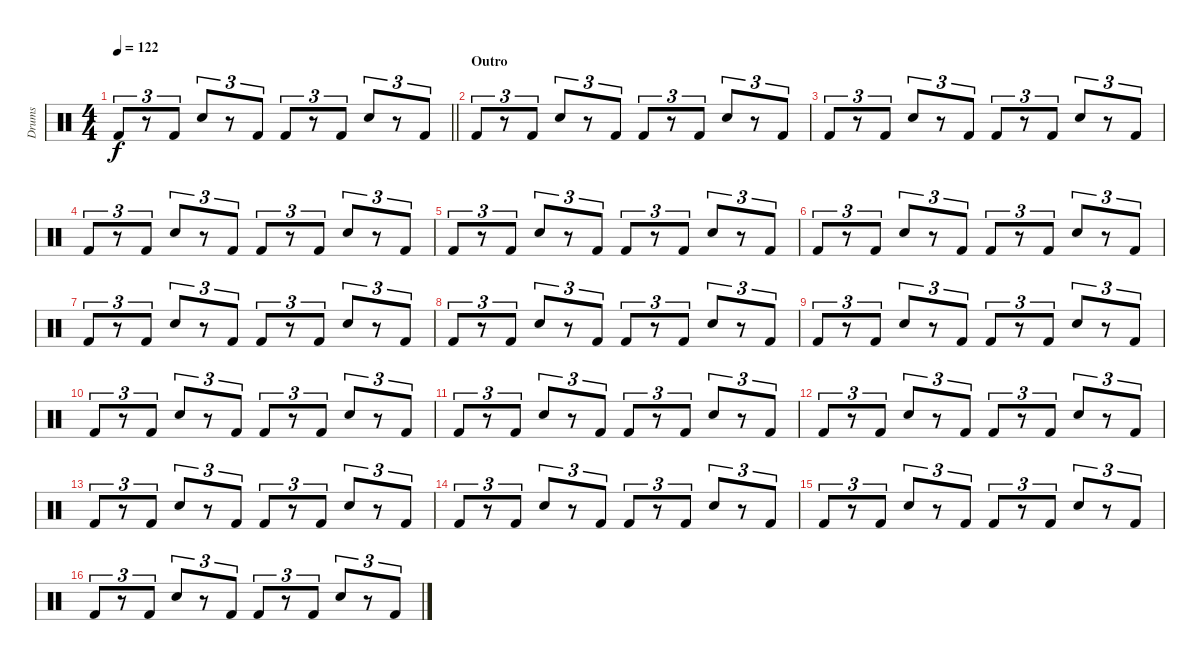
\track ("Drums" "Drums") {instrument percussion}
\staff {score}
\articulation defaults
\ts (4 4)
\tempo 122
\clef neutral
\barLineRight lightlight
\ks c "Kick (hit) 2".8{tu (3 2) dy f}
r.8{tu (3 2)} "Kick (hit) 2".8{tu (3 2)} "Snare (hit) 2".8{tu (3 2)} r.8{tu (3 2)} "Kick (hit) 2".8{tu (3 2)} "Kick (hit) 2".8{tu (3 2)} r.8{tu (3 2)} "Kick (hit) 2".8{tu (3 2)} "Snare (hit) 2".8{tu (3 2)} r.8{tu (3 2)} "Kick (hit) 2".8{tu (3 2)} |
\section ("" "Outro")
"Kick (hit) 2".8{tu (3 2)} r.8{tu (3 2)} "Kick (hit) 2".8{tu (3 2)} "Snare (hit) 2".8{tu (3 2)} r.8{tu (3 2)} "Kick (hit) 2".8{tu (3 2)} "Kick (hit) 2".8{tu (3 2)} r.8{tu (3 2)} "Kick (hit) 2".8{tu (3 2)} "Snare (hit) 2".8{tu (3 2)} r.8{tu (3 2)} "Kick (hit) 2".8{tu (3 2)} |
"Kick (hit) 2".8{tu (3 2)} r.8{tu (3 2)} "Kick (hit) 2".8{tu (3 2)} "Snare (hit) 2".8{tu (3 2)} r.8{tu (3 2)} "Kick (hit) 2".8{tu (3 2)} "Kick (hit) 2".8{tu (3 2)} r.8{tu (3 2)} "Kick (hit) 2".8{tu (3 2)} "Snare (hit) 2".8{tu (3 2)} r.8{tu (3 2)} "Kick (hit) 2".8{tu (3 2)} |
"Kick (hit) 2".8{tu (3 2)} r.8{tu (3 2)} "Kick (hit) 2".8{tu (3 2)} "Snare (hit) 2".8{tu (3 2)} r.8{tu (3 2)} "Kick (hit) 2".8{tu (3 2)} "Kick (hit) 2".8{tu (3 2)} r.8{tu (3 2)} "Kick (hit) 2".8{tu (3 2)} "Snare (hit) 2".8{tu (3 2)} r.8{tu (3 2)} "Kick (hit) 2".8{tu (3 2)} |
"Kick (hit) 2".8{tu (3 2)} r.8{tu (3 2)} "Kick (hit) 2".8{tu (3 2)} "Snare (hit) 2".8{tu (3 2)} r.8{tu (3 2)} "Kick (hit) 2".8{tu (3 2)} "Kick (hit) 2".8{tu (3 2)} r.8{tu (3 2)} "Kick (hit) 2".8{tu (3 2)} "Snare (hit) 2".8{tu (3 2)} r.8{tu (3 2)} "Kick (hit) 2".8{tu (3 2)} |
"Kick (hit) 2".8{tu (3 2)} r.8{tu (3 2)} "Kick (hit) 2".8{tu (3 2)} "Snare (hit) 2".8{tu (3 2)} r.8{tu (3 2)} "Kick (hit) 2".8{tu (3 2)} "Kick (hit) 2".8{tu (3 2)} r.8{tu (3 2)} "Kick (hit) 2".8{tu (3 2)} "Snare (hit) 2".8{tu (3 2)} r.8{tu (3 2)} "Kick (hit) 2".8{tu (3 2)} |
"Kick (hit) 2".8{tu (3 2)} r.8{tu (3 2)} "Kick (hit) 2".8{tu (3 2)} "Snare (hit) 2".8{tu (3 2)} r.8{tu (3 2)} "Kick (hit) 2".8{tu (3 2)} "Kick (hit) 2".8{tu (3 2)} r.8{tu (3 2)} "Kick (hit) 2".8{tu (3 2)} "Snare (hit) 2".8{tu (3 2)} r.8{tu (3 2)} "Kick (hit) 2".8{tu (3 2)} |
"Kick (hit) 2".8{tu (3 2)} r.8{tu (3 2)} "Kick (hit) 2".8{tu (3 2)} "Snare (hit) 2".8{tu (3 2)} r.8{tu (3 2)} "Kick (hit) 2".8{tu (3 2)} "Kick (hit) 2".8{tu (3 2)} r.8{tu (3 2)} "Kick (hit) 2".8{tu (3 2)} "Snare (hit) 2".8{tu (3 2)} r.8{tu (3 2)} "Kick (hit) 2".8{tu (3 2)} |
"Kick (hit) 2".8{tu (3 2)} r.8{tu (3 2)} "Kick (hit) 2".8{tu (3 2)} "Snare (hit) 2".8{tu (3 2)} r.8{tu (3 2)} "Kick (hit) 2".8{tu (3 2)} "Kick (hit) 2".8{tu (3 2)} r.8{tu (3 2)} "Kick (hit) 2".8{tu (3 2)} "Snare (hit) 2".8{tu (3 2)} r.8{tu (3 2)} "Kick (hit) 2".8{tu (3 2)} |
"Kick (hit) 2".8{tu (3 2)} r.8{tu (3 2)} "Kick (hit) 2".8{tu (3 2)} "Snare (hit) 2".8{tu (3 2)} r.8{tu (3 2)} "Kick (hit) 2".8{tu (3 2)} "Kick (hit) 2".8{tu (3 2)} r.8{tu (3 2)} "Kick (hit) 2".8{tu (3 2)} "Snare (hit) 2".8{tu (3 2)} r.8{tu (3 2)} "Kick (hit) 2".8{tu (3 2)} |
"Kick (hit) 2".8{tu (3 2)} r.8{tu (3 2)} "Kick (hit) 2".8{tu (3 2)} "Snare (hit) 2".8{tu (3 2)} r.8{tu (3 2)} "Kick (hit) 2".8{tu (3 2)} "Kick (hit) 2".8{tu (3 2)} r.8{tu (3 2)} "Kick (hit) 2".8{tu (3 2)} "Snare (hit) 2".8{tu (3 2)} r.8{tu (3 2)} "Kick (hit) 2".8{tu (3 2)} |
"Kick (hit) 2".8{tu (3 2)} r.8{tu (3 2)} "Kick (hit) 2".8{tu (3 2)} "Snare (hit) 2".8{tu (3 2)} r.8{tu (3 2)} "Kick (hit) 2".8{tu (3 2)} "Kick (hit) 2".8{tu (3 2)} r.8{tu (3 2)} "Kick (hit) 2".8{tu (3 2)} "Snare (hit) 2".8{tu (3 2)} r.8{tu (3 2)} "Kick (hit) 2".8{tu (3 2)} |
"Kick (hit) 2".8{tu (3 2)} r.8{tu (3 2)} "Kick (hit) 2".8{tu (3 2)} "Snare (hit) 2".8{tu (3 2)} r.8{tu (3 2)} "Kick (hit) 2".8{tu (3 2)} "Kick (hit) 2".8{tu (3 2)} r.8{tu (3 2)} "Kick (hit) 2".8{tu (3 2)} "Snare (hit) 2".8{tu (3 2)} r.8{tu (3 2)} "Kick (hit) 2".8{tu (3 2)} |
"Kick (hit) 2".8{tu (3 2)} r.8{tu (3 2)} "Kick (hit) 2".8{tu (3 2)} "Snare (hit) 2".8{tu (3 2)} r.8{tu (3 2)} "Kick (hit) 2".8{tu (3 2)} "Kick (hit) 2".8{tu (3 2)} r.8{tu (3 2)} "Kick (hit) 2".8{tu (3 2)} "Snare (hit) 2".8{tu (3 2)} r.8{tu (3 2)} "Kick (hit) 2".8{tu (3 2)} |
"Kick (hit) 2".8{tu (3 2)} r.8{tu (3 2)} "Kick (hit) 2".8{tu (3 2)} "Snare (hit) 2".8{tu (3 2)} r.8{tu (3 2)} "Kick (hit) 2".8{tu (3 2)} "Kick (hit) 2".8{tu (3 2)} r.8{tu (3 2)} "Kick (hit) 2".8{tu (3 2)} "Snare (hit) 2".8{tu (3 2)} r.8{tu (3 2)} "Kick (hit) 2".8{tu (3 2)} |
"Kick (hit) 2".8{tu (3 2)} r.8{tu (3 2)} "Kick (hit) 2".8{tu (3 2)} "Snare (hit) 2".8{tu (3 2)} r.8{tu (3 2)} "Kick (hit) 2".8{tu (3 2)} "Kick (hit) 2".8{tu (3 2)} r.8{tu (3 2)} "Kick (hit) 2".8{tu (3 2)} "Snare (hit) 2".8{tu (3 2)} r.8{tu (3 2)} "Kick (hit) 2".8{tu (3 2)}
